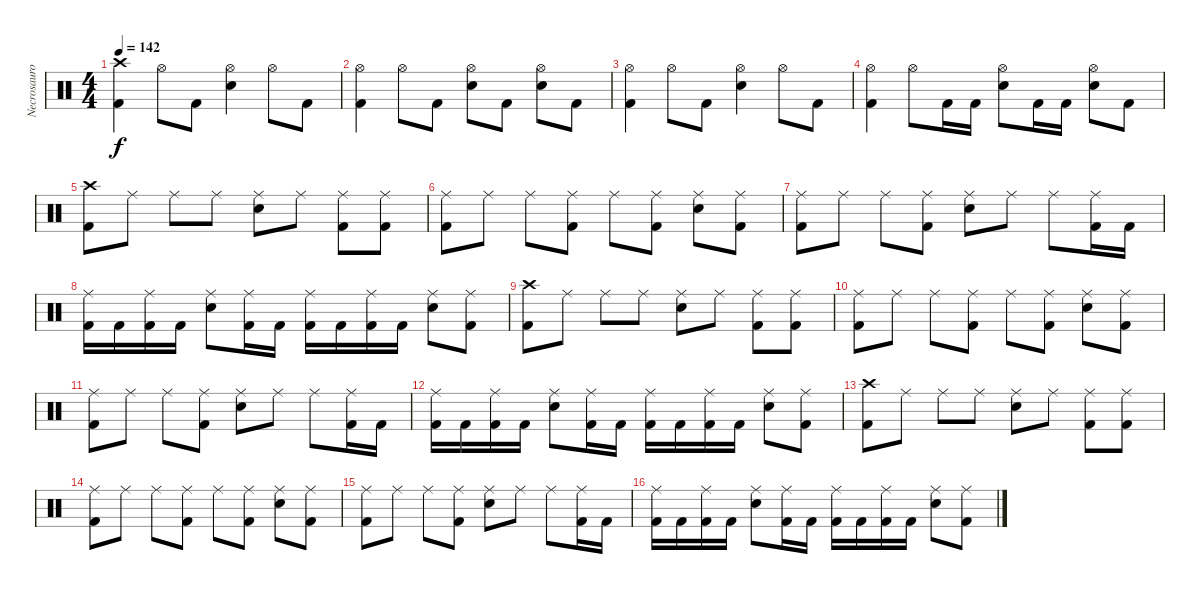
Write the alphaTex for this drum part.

\track ("Necrosauron" "Necrosauro") {instrument percussion}
\staff {score}
\articulation defaults
\ts (4 4)
\tempo 142
\clef neutral
\ks c
("Crash high (hit)" "Kick (hit) 2").4{dy f} "Hi-Hat (open)".8 "Kick (hit) 2".8 ("Hi-Hat (open)" "Snare (hit) 2").4 "Hi-Hat (open)".8 "Kick (hit) 2".8 |
("Hi-Hat (open)" "Kick (hit) 2").4 "Hi-Hat (open)".8 "Kick (hit) 2".8 ("Hi-Hat (open)" "Snare (hit) 2").8 "Kick (hit) 2".8 ("Hi-Hat (open)" "Snare (hit) 2").8 "Kick (hit) 2".8 |
("Hi-Hat (open)" "Kick (hit) 2").4 "Hi-Hat (open)".8 "Kick (hit) 2".8 ("Hi-Hat (open)" "Snare (hit) 2").4 "Hi-Hat (open)".8 "Kick (hit) 2".8 |
("Hi-Hat (open)" "Kick (hit) 2").4 "Hi-Hat (open)".8 "Kick (hit) 2".16 "Kick (hit) 2".16 ("Hi-Hat (open)" "Snare (hit) 2").8 "Kick (hit) 2".16 "Kick (hit) 2".16 ("Hi-Hat (open)" "Snare (hit) 2").8 "Kick (hit) 2".8 |
("Crash high (hit)" "Kick (hit) 2").8 "Ride (middle)".8 "Ride (middle)".8 "Ride (middle)".8 ("Ride (middle)" "Snare (hit) 2").8 "Ride (middle)".8 ("Ride (middle)" "Kick (hit) 2").8 ("Ride (middle)" "Kick (hit) 2").8 |
("Ride (middle)" "Kick (hit) 2").8 "Ride (middle)".8 "Ride (middle)".8 ("Ride (middle)" "Kick (hit) 2").8 "Ride (middle)".8 ("Ride (middle)" "Kick (hit) 2").8 ("Ride (middle)" "Snare (hit) 2").8 ("Ride (middle)" "Kick (hit) 2").8 |
("Ride (middle)" "Kick (hit) 2").8 "Ride (middle)".8 "Ride (middle)".8 ("Ride (middle)" "Kick (hit) 2").8 ("Ride (middle)" "Snare (hit) 2").8 "Ride (middle)".8 "Ride (middle)".8 ("Ride (middle)" "Kick (hit) 2").16 "Kick (hit) 2".16 |
("Ride (middle)" "Kick (hit) 2").16 "Kick (hit) 2".16 ("Ride (middle)" "Kick (hit) 2").16 "Kick (hit) 2".16 ("Ride (middle)" "Snare (hit) 2").8 ("Ride (middle)" "Kick (hit) 2").16 "Kick (hit) 2".16 ("Ride (middle)" "Kick (hit) 2").16 "Kick (hit) 2".16 ("Ride (middle)" "Kick (hit) 2").16 "Kick (hit) 2".16 ("Ride (middle)" "Snare (hit) 2").8 ("Ride (middle)" "Kick (hit) 2").8 |
("Crash high (hit)" "Kick (hit) 2").8 "Ride (middle)".8 "Ride (middle)".8 "Ride (middle)".8 ("Ride (middle)" "Snare (hit) 2").8 "Ride (middle)".8 ("Ride (middle)" "Kick (hit) 2").8 ("Ride (middle)" "Kick (hit) 2").8 |
("Ride (middle)" "Kick (hit) 2").8 "Ride (middle)".8 "Ride (middle)".8 ("Ride (middle)" "Kick (hit) 2").8 "Ride (middle)".8 ("Ride (middle)" "Kick (hit) 2").8 ("Ride (middle)" "Snare (hit) 2").8 ("Ride (middle)" "Kick (hit) 2").8 |
("Ride (middle)" "Kick (hit) 2").8 "Ride (middle)".8 "Ride (middle)".8 ("Ride (middle)" "Kick (hit) 2").8 ("Ride (middle)" "Snare (hit) 2").8 "Ride (middle)".8 "Ride (middle)".8 ("Ride (middle)" "Kick (hit) 2").16 "Kick (hit) 2".16 |
("Ride (middle)" "Kick (hit) 2").16 "Kick (hit) 2".16 ("Ride (middle)" "Kick (hit) 2").16 "Kick (hit) 2".16 ("Ride (middle)" "Snare (hit) 2").8 ("Ride (middle)" "Kick (hit) 2").16 "Kick (hit) 2".16 ("Ride (middle)" "Kick (hit) 2").16 "Kick (hit) 2".16 ("Ride (middle)" "Kick (hit) 2").16 "Kick (hit) 2".16 ("Ride (middle)" "Snare (hit) 2").8 ("Ride (middle)" "Kick (hit) 2").8 |
("Crash high (hit)" "Kick (hit) 2").8 "Ride (middle)".8 "Ride (middle)".8 "Ride (middle)".8 ("Ride (middle)" "Snare (hit) 2").8 "Ride (middle)".8 ("Ride (middle)" "Kick (hit) 2").8 ("Ride (middle)" "Kick (hit) 2").8 |
("Ride (middle)" "Kick (hit) 2").8 "Ride (middle)".8 "Ride (middle)".8 ("Ride (middle)" "Kick (hit) 2").8 "Ride (middle)".8 ("Ride (middle)" "Kick (hit) 2").8 ("Ride (middle)" "Snare (hit) 2").8 ("Ride (middle)" "Kick (hit) 2").8 |
("Ride (middle)" "Kick (hit) 2").8 "Ride (middle)".8 "Ride (middle)".8 ("Ride (middle)" "Kick (hit) 2").8 ("Ride (middle)" "Snare (hit) 2").8 "Ride (middle)".8 "Ride (middle)".8 ("Ride (middle)" "Kick (hit) 2").16 "Kick (hit) 2".16 |
("Ride (middle)" "Kick (hit) 2").16 "Kick (hit) 2".16 ("Ride (middle)" "Kick (hit) 2").16 "Kick (hit) 2".16 ("Ride (middle)" "Snare (hit) 2").8 ("Ride (middle)" "Kick (hit) 2").16 "Kick (hit) 2".16 ("Ride (middle)" "Kick (hit) 2").16 "Kick (hit) 2".16 ("Ride (middle)" "Kick (hit) 2").16 "Kick (hit) 2".16 ("Ride (middle)" "Snare (hit) 2").8 ("Ride (middle)" "Kick (hit) 2").8
